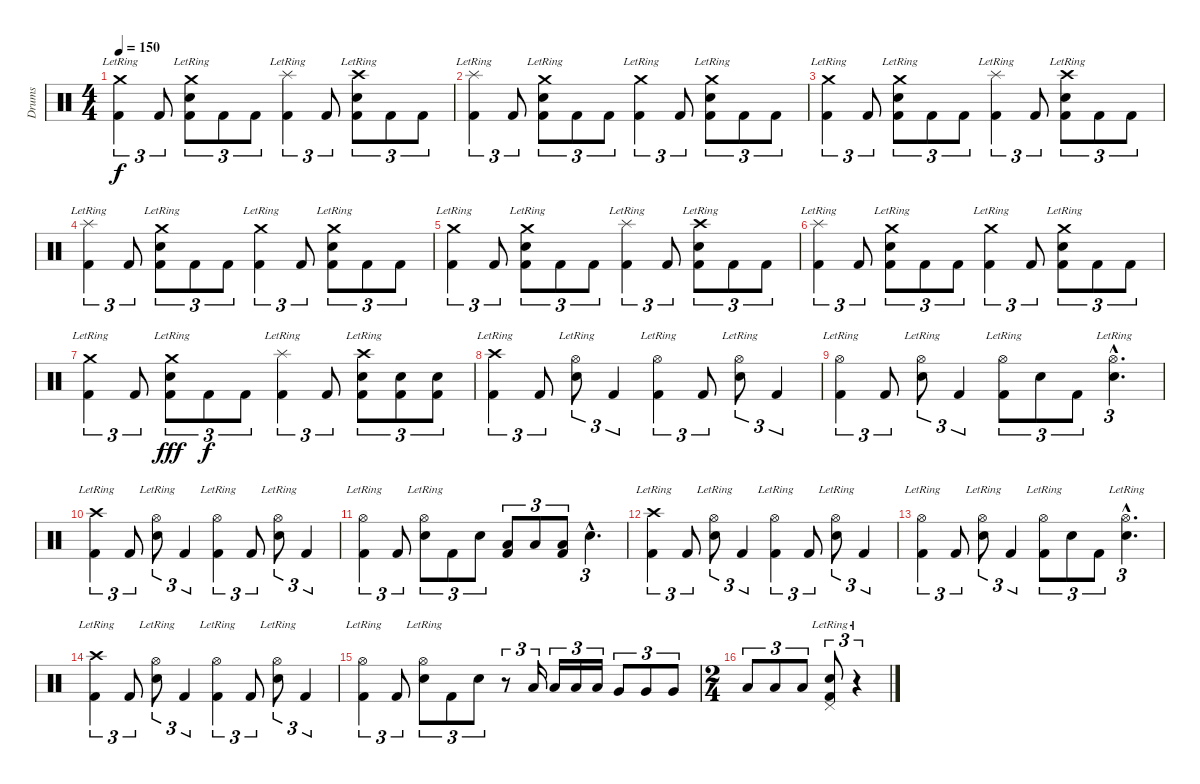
\track ("Drums" "Drums") {instrument percussion}
\staff {score}
\articulation defaults
\ts (4 4)
\tempo 150
\clef neutral
\ks c
("Crash medium (hit)"{lr} "Kick (hit) 2").4{tu (3 2) dy f} "Kick (hit) 2".8{tu (3 2)} ("Crash medium (hit)"{lr} "Snare (hit) 2" "Kick (hit) 2").8{tu (3 2)} "Kick (hit) 2".8{tu (3 2)} "Kick (hit) 2".8{tu (3 2)} ("Splash (hit)"{lr} "Kick (hit) 2").4{tu (3 2)} "Kick (hit) 2".8{tu (3 2)} ("Crash high (hit)"{lr} "Snare (hit) 2" "Kick (hit) 2").8{tu (3 2)} "Kick (hit) 2".8{tu (3 2)} "Kick (hit) 2".8{tu (3 2)} |
("Splash (hit)"{lr} "Kick (hit) 2").4{tu (3 2)} "Kick (hit) 2".8{tu (3 2)} ("Crash medium (hit)"{lr} "Snare (hit) 2" "Kick (hit) 2").8{tu (3 2)} "Kick (hit) 2".8{tu (3 2)} "Kick (hit) 2".8{tu (3 2)} ("Crash medium (hit)"{lr} "Kick (hit) 2").4{tu (3 2)} "Kick (hit) 2".8{tu (3 2)} ("Crash medium (hit)"{lr} "Snare (hit) 2" "Kick (hit) 2").8{tu (3 2)} "Kick (hit) 2".8{tu (3 2)} "Kick (hit) 2".8{tu (3 2)} |
("Crash medium (hit)"{lr} "Kick (hit) 2").4{tu (3 2)} "Kick (hit) 2".8{tu (3 2)} ("Crash medium (hit)"{lr} "Snare (hit) 2" "Kick (hit) 2").8{tu (3 2)} "Kick (hit) 2".8{tu (3 2)} "Kick (hit) 2".8{tu (3 2)} ("Splash (hit)"{lr} "Kick (hit) 2").4{tu (3 2)} "Kick (hit) 2".8{tu (3 2)} ("Crash high (hit)"{lr} "Snare (hit) 2" "Kick (hit) 2").8{tu (3 2)} "Kick (hit) 2".8{tu (3 2)} "Kick (hit) 2".8{tu (3 2)} |
("Splash (hit)"{lr} "Kick (hit) 2").4{tu (3 2)} "Kick (hit) 2".8{tu (3 2)} ("Crash medium (hit)"{lr} "Snare (hit) 2" "Kick (hit) 2").8{tu (3 2)} "Kick (hit) 2".8{tu (3 2)} "Kick (hit) 2".8{tu (3 2)} ("Crash medium (hit)"{lr} "Kick (hit) 2").4{tu (3 2)} "Kick (hit) 2".8{tu (3 2)} ("Crash medium (hit)"{lr} "Snare (hit) 2" "Kick (hit) 2").8{tu (3 2)} "Kick (hit) 2".8{tu (3 2)} "Kick (hit) 2".8{tu (3 2)} |
("Crash medium (hit)"{lr} "Kick (hit) 2").4{tu (3 2)} "Kick (hit) 2".8{tu (3 2)} ("Crash medium (hit)"{lr} "Snare (hit) 2" "Kick (hit) 2").8{tu (3 2)} "Kick (hit) 2".8{tu (3 2)} "Kick (hit) 2".8{tu (3 2)} ("Splash (hit)"{lr} "Kick (hit) 2").4{tu (3 2)} "Kick (hit) 2".8{tu (3 2)} ("Crash high (hit)"{lr} "Snare (hit) 2" "Kick (hit) 2").8{tu (3 2)} "Kick (hit) 2".8{tu (3 2)} "Kick (hit) 2".8{tu (3 2)} |
("Splash (hit)"{lr} "Kick (hit) 2").4{tu (3 2)} "Kick (hit) 2".8{tu (3 2)} ("Crash medium (hit)"{lr} "Snare (hit) 2" "Kick (hit) 2").8{tu (3 2)} "Kick (hit) 2".8{tu (3 2)} "Kick (hit) 2".8{tu (3 2)} ("Crash medium (hit)"{lr} "Kick (hit) 2").4{tu (3 2)} "Kick (hit) 2".8{tu (3 2)} ("Crash medium (hit)"{lr} "Snare (hit) 2" "Kick (hit) 2").8{tu (3 2)} "Kick (hit) 2".8{tu (3 2)} "Kick (hit) 2".8{tu (3 2)} |
("Crash medium (hit)"{lr} "Kick (hit) 2").4{tu (3 2)} "Kick (hit) 2".8{tu (3 2)} ("Crash medium (hit)"{lr} "Snare (hit) 2" "Kick (hit) 2").8{tu (3 2) dy fff} "Kick (hit) 2".8{tu (3 2) dy f} "Kick (hit) 2".8{tu (3 2)} ("Splash (hit)"{lr} "Kick (hit) 2").4{tu (3 2)} "Kick (hit) 2".8{tu (3 2)} ("Crash high (hit)"{lr} "Snare (hit) 2" "Kick (hit) 2").8{tu (3 2)} ("Snare (hit) 2" "Kick (hit) 2").8{tu (3 2)} ("Snare (hit) 2" "Kick (hit) 2").8{tu (3 2)} |
("Crash high (hit)"{lr} "Kick (hit) 2").4{tu (3 2)} "Kick (hit) 2".8{tu (3 2)} ("Hi-Hat (open)"{lr} "Snare (hit) 2").8{tu (3 2)} "Kick (hit) 2".4{tu (3 2)} ("Hi-Hat (open)"{lr} "Kick (hit) 2").4{tu (3 2)} "Kick (hit) 2".8{tu (3 2)} ("Hi-Hat (open)"{lr} "Snare (hit) 2").8{tu (3 2)} "Kick (hit) 2".4{tu (3 2)} |
("Hi-Hat (open)"{lr} "Kick (hit) 2").4{tu (3 2)} "Kick (hit) 2".8{tu (3 2)} ("Hi-Hat (open)"{lr} "Snare (hit) 2").8{tu (3 2)} "Kick (hit) 2".4{tu (3 2)} ("Hi-Hat (open)"{lr} "Kick (hit) 2").8{tu (3 2)} "Snare (hit) 2".8{tu (3 2)} "Kick (hit) 2".8{tu (3 2)} ("Hi-Hat (open)"{hac lr} "Snare (hit) 2"{hac}).4{d tu (3 2)} |
("Crash high (hit)"{lr} "Kick (hit) 2").4{tu (3 2)} "Kick (hit) 2".8{tu (3 2)} ("Hi-Hat (open)"{lr} "Snare (hit) 2").8{tu (3 2)} "Kick (hit) 2".4{tu (3 2)} ("Hi-Hat (open)"{lr} "Kick (hit) 2").4{tu (3 2)} "Kick (hit) 2".8{tu (3 2)} ("Hi-Hat (open)"{lr} "Snare (hit) 2").8{tu (3 2)} "Kick (hit) 2".4{tu (3 2)} |
("Hi-Hat (open)"{lr} "Kick (hit) 2").4{tu (3 2)} "Kick (hit) 2".8{tu (3 2)} ("Hi-Hat (open)"{lr} "Snare (hit) 2").8{tu (3 2)} "Kick (hit) 2".8{tu (3 2)} "Snare (hit) 2".8{tu (3 2)} ("Low Tom (hit)" "Kick (hit) 2").8{tu (3 2)} "Low Tom (hit)".8{tu (3 2)} ("Low Tom (hit)" "Kick (hit) 2").8{tu (3 2)} "Snare (hit) 2"{hac}.4{d tu (3 2)} |
("Crash high (hit)"{lr} "Kick (hit) 2").4{tu (3 2)} "Kick (hit) 2".8{tu (3 2)} ("Hi-Hat (open)"{lr} "Snare (hit) 2").8{tu (3 2)} "Kick (hit) 2".4{tu (3 2)} ("Hi-Hat (open)"{lr} "Kick (hit) 2").4{tu (3 2)} "Kick (hit) 2".8{tu (3 2)} ("Hi-Hat (open)"{lr} "Snare (hit) 2").8{tu (3 2)} "Kick (hit) 2".4{tu (3 2)} |
("Hi-Hat (open)"{lr} "Kick (hit) 2").4{tu (3 2)} "Kick (hit) 2".8{tu (3 2)} ("Hi-Hat (open)"{lr} "Snare (hit) 2").8{tu (3 2)} "Kick (hit) 2".4{tu (3 2)} ("Hi-Hat (open)"{lr} "Kick (hit) 2").8{tu (3 2)} "Snare (hit) 2".8{tu (3 2)} "Kick (hit) 2".8{tu (3 2)} ("Hi-Hat (open)"{hac lr} "Snare (hit) 2"{hac}).4{d tu (3 2)} |
("Crash high (hit)"{lr} "Kick (hit) 2").4{tu (3 2)} "Kick (hit) 2".8{tu (3 2)} ("Hi-Hat (open)"{lr} "Snare (hit) 2").8{tu (3 2)} "Kick (hit) 2".4{tu (3 2)} ("Hi-Hat (open)"{lr} "Kick (hit) 2").4{tu (3 2)} "Kick (hit) 2".8{tu (3 2)} ("Hi-Hat (open)"{lr} "Snare (hit) 2").8{tu (3 2)} "Kick (hit) 2".4{tu (3 2)} |
("Hi-Hat (open)"{lr} "Kick (hit) 2").4{tu (3 2)} "Kick (hit) 2".8{tu (3 2)} ("Hi-Hat (open)"{lr} "Snare (hit) 2").8{tu (3 2)} "Kick (hit) 2".8{tu (3 2)} "Snare (hit) 2".8{tu (3 2)} r.8{tu (3 2)} "Low Tom (hit)".16{tu (3 2)} "Low Tom (hit)".16{tu (3 2)} "Low Tom (hit)".16{tu (3 2)} "Low Tom (hit)".16{tu (3 2)} "Very Low Tom (hit)".8{tu (3 2)} "Very Low Tom (hit)".8{tu (3 2)} "Very Low Tom (hit)".8{tu (3 2)} |
\ts (2 4)
"Low Floor Tom (hit)".8{tu (3 2)} "Low Floor Tom (hit)".8{tu (3 2)} "Low Floor Tom (hit)".8{tu (3 2)} ("Pedal Hi-Hat (hit)"{lr} "Snare (hit) 2" "Kick (hit) 2").8{tu (3 2)} r.4{tu (3 2)}
